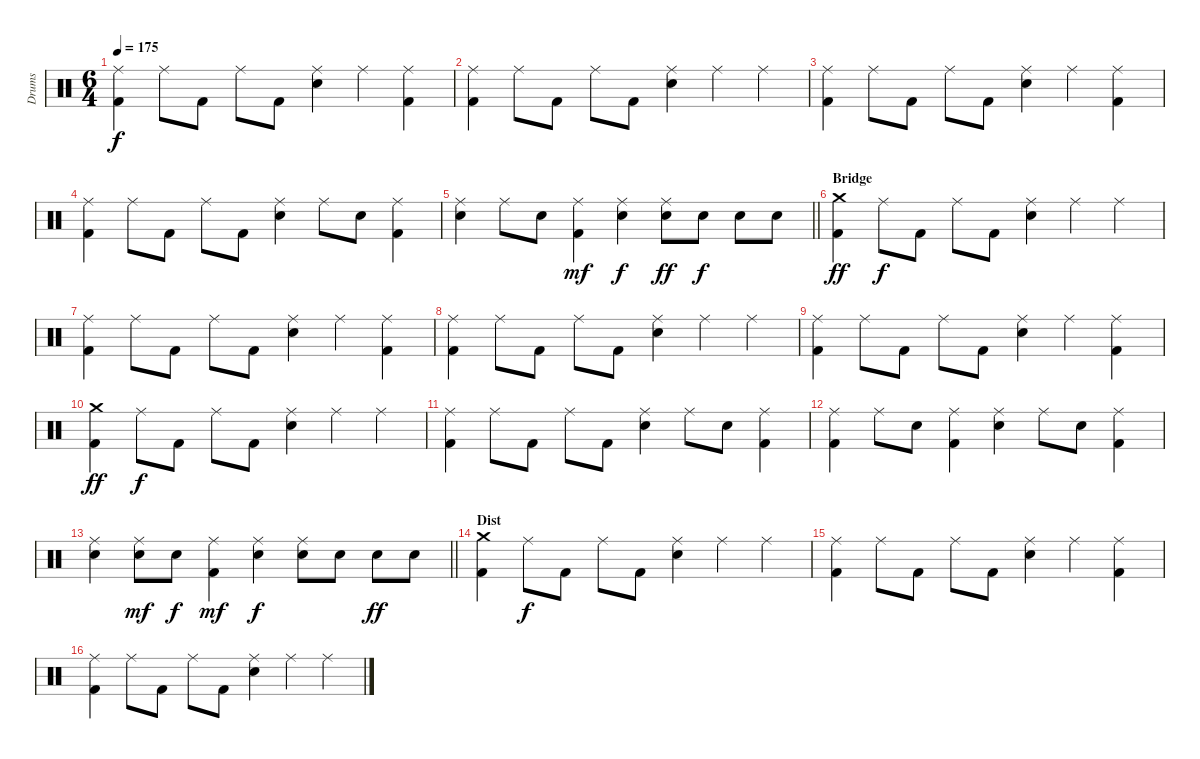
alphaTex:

\track ("Drums" "Drums") {instrument percussion}
\staff {score}
\articulation defaults
\ts (6 4)
\tempo 175
\clef neutral
\ks c
("Ride (middle)" "Kick (hit) 2").4{dy f} "Ride (middle)".8 "Kick (hit) 2".8 "Ride (middle)".8 "Kick (hit) 2".8 ("Ride (middle)" "Snare (hit) 2").4 "Ride (middle)".4 ("Ride (middle)" "Kick (hit) 2").4 |
("Ride (middle)" "Kick (hit) 2").4 "Ride (middle)".8 "Kick (hit) 2".8 "Ride (middle)".8 "Kick (hit) 2".8 ("Ride (middle)" "Snare (hit) 2").4 "Ride (middle)".4 "Ride (middle)".4 |
("Ride (middle)" "Kick (hit) 2").4 "Ride (middle)".8 "Kick (hit) 2".8 "Ride (middle)".8 "Kick (hit) 2".8 ("Ride (middle)" "Snare (hit) 2").4 "Ride (middle)".4 ("Ride (middle)" "Kick (hit) 2").4 |
("Ride (middle)" "Kick (hit) 2").4 "Ride (middle)".8 "Kick (hit) 2".8 "Ride (middle)".8 "Kick (hit) 2".8 ("Ride (middle)" "Snare (hit) 2").4 "Ride (middle)".8 "Snare (hit) 2".8 ("Ride (middle)" "Kick (hit) 2").4 |
\barLineRight lightlight
("Ride (middle)" "Snare (hit) 2").4 "Ride (middle)".8 "Snare (hit) 2".8 ("Ride (middle)" "Kick (hit) 2").4{dy mf} ("Ride (middle)" "Snare (hit) 2").4{dy f} ("Ride (middle)" "Snare (hit) 2").8{dy ff} "Snare (hit) 2".8{dy f} "Snare (hit) 2".8 "Snare (hit) 2".8 |
\section ("" "Bridge")
("Crash medium (hit)" "Kick (hit) 2").4{dy ff} "Ride (middle)".8{dy f} "Kick (hit) 2".8 "Ride (middle)".8 "Kick (hit) 2".8 ("Ride (middle)" "Snare (hit) 2").4 "Ride (middle)".4 "Ride (middle)".4 |
("Ride (middle)" "Kick (hit) 2").4 "Ride (middle)".8 "Kick (hit) 2".8 "Ride (middle)".8 "Kick (hit) 2".8 ("Ride (middle)" "Snare (hit) 2").4 "Ride (middle)".4 ("Ride (middle)" "Kick (hit) 2").4 |
("Ride (middle)" "Kick (hit) 2").4 "Ride (middle)".8 "Kick (hit) 2".8 "Ride (middle)".8 "Kick (hit) 2".8 ("Ride (middle)" "Snare (hit) 2").4 "Ride (middle)".4 "Ride (middle)".4 |
("Ride (middle)" "Kick (hit) 2").4 "Ride (middle)".8 "Kick (hit) 2".8 "Ride (middle)".8 "Kick (hit) 2".8 ("Ride (middle)" "Snare (hit) 2").4 "Ride (middle)".4 ("Ride (middle)" "Kick (hit) 2").4 |
("Crash medium (hit)" "Kick (hit) 2").4{dy ff} "Ride (middle)".8{dy f} "Kick (hit) 2".8 "Ride (middle)".8 "Kick (hit) 2".8 ("Ride (middle)" "Snare (hit) 2").4 "Ride (middle)".4 "Ride (middle)".4 |
("Ride (middle)" "Kick (hit) 2").4 "Ride (middle)".8 "Kick (hit) 2".8 "Ride (middle)".8 "Kick (hit) 2".8 ("Ride (middle)" "Snare (hit) 2").4 "Ride (middle)".8 "Snare (hit) 2".8 ("Ride (middle)" "Kick (hit) 2").4 |
("Ride (middle)" "Kick (hit) 2").4 "Ride (middle)".8 "Snare (hit) 2".8 ("Ride (middle)" "Kick (hit) 2").4 ("Ride (middle)" "Snare (hit) 2").4 "Ride (middle)".8 "Snare (hit) 2".8 ("Ride (middle)" "Kick (hit) 2").4 |
\barLineRight lightlight
("Ride (middle)" "Snare (hit) 2").4 ("Ride (middle)" "Snare (hit) 2").8{dy mf} "Snare (hit) 2".8{dy f} ("Ride (middle)" "Kick (hit) 2").4{dy mf} ("Ride (middle)" "Snare (hit) 2").4{dy f} ("Ride (middle)" "Snare (hit) 2").8 "Snare (hit) 2".8 "Snare (hit) 2".8{dy ff} "Snare (hit) 2".8 |
\section ("" "Dist")
("Crash medium (hit)" "Kick (hit) 2").4 "Ride (middle)".8{dy f} "Kick (hit) 2".8 "Ride (middle)".8 "Kick (hit) 2".8 ("Ride (middle)" "Snare (hit) 2").4 "Ride (middle)".4 "Ride (middle)".4 |
("Ride (middle)" "Kick (hit) 2").4 "Ride (middle)".8 "Kick (hit) 2".8 "Ride (middle)".8 "Kick (hit) 2".8 ("Ride (middle)" "Snare (hit) 2").4 "Ride (middle)".4 ("Ride (middle)" "Kick (hit) 2").4 |
("Ride (middle)" "Kick (hit) 2").4 "Ride (middle)".8 "Kick (hit) 2".8 "Ride (middle)".8 "Kick (hit) 2".8 ("Ride (middle)" "Snare (hit) 2").4 "Ride (middle)".4 "Ride (middle)".4
